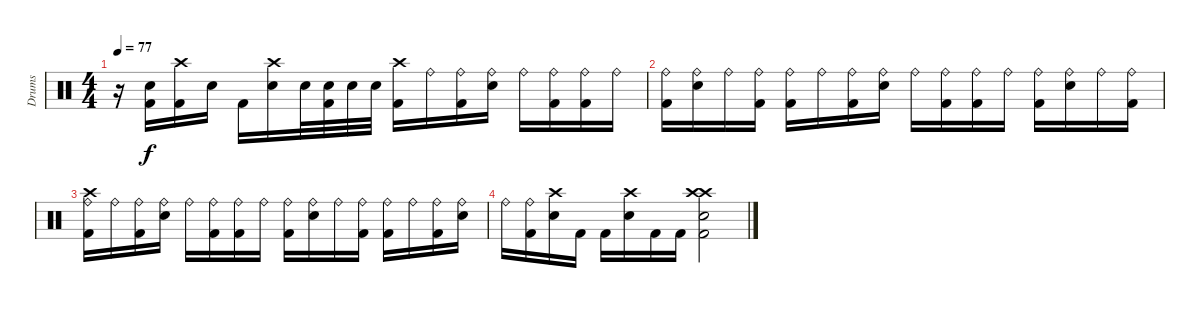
\track ("Drums" "Drums") {instrument percussion}
\staff {score}
\articulation defaults
\ts (4 4)
\tempo 77
\clef neutral
\ks c
r.16{dy f} ("Snare (hit) 2" "Kick (hit) 2").16 ("Crash high (hit)" "Kick (hit) 2").16 "Snare (hit) 2".16 "Kick (hit) 2".16 ("Crash high (hit)" "Snare (hit) 2").16 "Snare (hit) 2".32 ("Snare (hit) 2" "Kick (hit) 2").32 "Snare (hit) 2".32 "Snare (hit) 2".32 ("Crash high (hit)" "Kick (hit) 2").16 "Ride (bell)".16 ("Ride (bell)" "Kick (hit) 2").16 ("Ride (bell)" "Snare (hit) 2").16 "Ride (bell)".16 ("Ride (bell)" "Kick (hit) 2").16 ("Ride (bell)" "Kick (hit) 2").16 "Ride (bell)".16 |
("Ride (bell)" "Kick (hit) 2").16 ("Ride (bell)" "Snare (hit) 2").16 "Ride (bell)".16 ("Ride (bell)" "Kick (hit) 2").16 ("Ride (bell)" "Kick (hit) 2").16 "Ride (bell)".16 ("Ride (bell)" "Kick (hit) 2").16 ("Ride (bell)" "Snare (hit) 2").16 "Ride (bell)".16 ("Ride (bell)" "Kick (hit) 2").16 ("Ride (bell)" "Kick (hit) 2").16 "Ride (bell)".16 ("Ride (bell)" "Kick (hit) 2").16 ("Ride (bell)" "Snare (hit) 2").16 "Ride (bell)".16 ("Ride (bell)" "Kick (hit) 2").16 |
("Crash high (hit)" "Ride (bell)" "Kick (hit) 2").16 "Ride (bell)".16 ("Ride (bell)" "Kick (hit) 2").16 ("Ride (bell)" "Snare (hit) 2").16 "Ride (bell)".16 ("Ride (bell)" "Kick (hit) 2").16 ("Ride (bell)" "Kick (hit) 2").16 "Ride (bell)".16 ("Ride (bell)" "Kick (hit) 2").16 ("Ride (bell)" "Snare (hit) 2").16 "Ride (bell)".16 ("Ride (bell)" "Kick (hit) 2").16 ("Ride (bell)" "Kick (hit) 2").16 "Ride (bell)".16 ("Ride (bell)" "Kick (hit) 2").16 ("Ride (bell)" "Snare (hit) 2").16 |
"Ride (bell)".16 ("Ride (bell)" "Kick (hit) 2").16 ("Crash high (hit)" "Snare (hit) 2").16 "Kick (hit) 2".16 "Kick (hit) 2".16 ("Crash high (hit)" "Snare (hit) 2").16 "Kick (hit) 2".16 "Kick (hit) 2".16 ("Crash high (hit)" "Crash high (hit)" "Snare (hit) 2" "Kick (hit) 2").2
